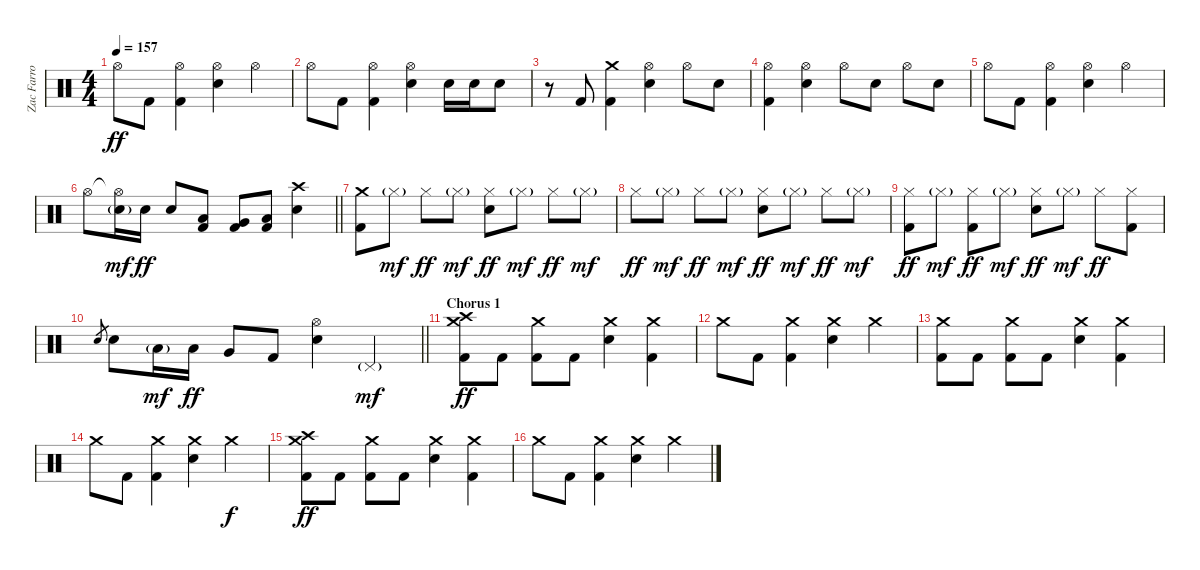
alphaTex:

\track ("Zac Farro | Drum" "Zac Farro ") {instrument percussion}
\staff {score}
\articulation defaults
\ts (4 4)
\tempo 157
\clef neutral
\ks c "Hi-Hat (open)".8{dy ff} "Kick (hit) 2".8
("Hi-Hat (open)" "Kick (hit) 2").4 ("Hi-Hat (open)" "Electric Snare (hit)").4 "Hi-Hat (open)".4 |
"Hi-Hat (open)".8 "Kick (hit) 2".8 ("Hi-Hat (open)" "Kick (hit) 2").4 ("Hi-Hat (open)" "Electric Snare (hit)").4 "Electric Snare (hit)".16 "Electric Snare (hit)".16 "Electric Snare (hit)".8 |
r.8 "Kick (hit) 2".8 ("Crash medium (hit)" "Kick (hit) 2").4 ("Hi-Hat (open)" "Electric Snare (hit)").4 "Hi-Hat (open)".8 "Electric Snare (hit)".8 |
("Hi-Hat (open)" "Kick (hit) 2").4 ("Hi-Hat (open)" "Electric Snare (hit)").4 "Hi-Hat (open)".8 "Electric Snare (hit)".8 "Hi-Hat (open)".8 "Electric Snare (hit)".8 |
"Hi-Hat (open)".8 "Kick (hit) 2".8 ("Hi-Hat (open)" "Kick (hit) 2").4 ("Hi-Hat (open)" "Electric Snare (hit)").4 "Hi-Hat (open)".4 |
\barLineRight lightlight "Hi-Hat (open)".8
("Hi-Hat (open)"{t} "Electric Snare (hit)"{g}).16{dy mf} "Electric Snare (hit)".16{dy ff} "Electric Snare (hit)".8 ("Low Tom (hit)" "Kick (hit) 2").8 ("Very Low Tom (hit)" "Kick (hit) 2").8 ("Low Floor Tom (hit)" "Kick (hit) 2").8 ("Crash high (hit)" "Electric Snare (hit)").4 |
\section ("" "")
("Crash medium (hit)" "Kick (hit) 2").8 "Hi-Hat (closed)"{g}.8{dy mf} "Hi-Hat (closed)".8{dy ff} "Hi-Hat (closed)"{g}.8{dy mf} ("Hi-Hat (closed)" "Electric Snare (hit)").8{dy ff} "Hi-Hat (closed)"{g}.8{dy mf} "Hi-Hat (closed)".8{dy ff} "Hi-Hat (closed)"{g}.8{dy mf} |
"Hi-Hat (closed)".8{dy ff} "Hi-Hat (closed)"{g}.8{dy mf} "Hi-Hat (closed)".8{dy ff} "Hi-Hat (closed)"{g}.8{dy mf} ("Hi-Hat (closed)" "Electric Snare (hit)").8{dy ff} "Hi-Hat (closed)"{g}.8{dy mf} "Hi-Hat (closed)".8{dy ff} "Hi-Hat (closed)"{g}.8{dy mf} |
("Hi-Hat (closed)" "Kick (hit) 2").8{dy ff} "Hi-Hat (closed)"{g}.8{dy mf} ("Hi-Hat (closed)" "Kick (hit) 2").8{dy ff} "Hi-Hat (closed)"{g}.8{dy mf} ("Hi-Hat (closed)" "Electric Snare (hit)").8{dy ff} "Hi-Hat (closed)"{g}.8{dy mf} "Hi-Hat (closed)".8{dy ff} ("Hi-Hat (closed)" "Kick (hit) 2").8 |
\barLineRight lightlight "Electric Snare (hit)".8{gr} "Electric Snare (hit)".8 "Low Tom (hit)"{g}.16{dy mf} "Low Tom (hit)".16{dy ff} "Very Low Tom (hit)".8 "Kick (hit) 2".8
("Hi-Hat (open)" "Electric Snare (hit)").4 "Pedal Hi-Hat (hit)"{g}.4{dy mf} |
\section ("" "Chorus 1")
("Crash high (hit)" "Crash medium (hit)" "Kick (hit) 2").8{dy ff} "Kick (hit) 2".8 ("Crash medium (hit)" "Kick (hit) 2").8 "Kick (hit) 2".8 ("Crash medium (hit)" "Electric Snare (hit)").4 ("Crash medium (hit)" "Kick (hit) 2").4 |
"Crash medium (hit)".8 "Kick (hit) 2".8 ("Crash medium (hit)" "Kick (hit) 2").4 ("Crash medium (hit)" "Electric Snare (hit)").4 "Crash medium (hit)".4 |
("Crash medium (hit)" "Kick (hit) 2").8 "Kick (hit) 2".8 ("Crash medium (hit)" "Kick (hit) 2").8 "Kick (hit) 2".8 ("Crash medium (hit)" "Electric Snare (hit)").4 ("Crash medium (hit)" "Kick (hit) 2").4 |
"Crash medium (hit)".8 "Kick (hit) 2".8 ("Crash medium (hit)" "Kick (hit) 2").4 ("Crash medium (hit)" "Electric Snare (hit)").4 "Crash medium (hit)".4{dy f} |
("Crash high (hit)" "Crash medium (hit)" "Kick (hit) 2").8{dy ff} "Kick (hit) 2".8 ("Crash medium (hit)" "Kick (hit) 2").8 "Kick (hit) 2".8 ("Crash medium (hit)" "Electric Snare (hit)").4 ("Crash medium (hit)" "Kick (hit) 2").4 |
"Crash medium (hit)".8 "Kick (hit) 2".8 ("Crash medium (hit)" "Kick (hit) 2").4 ("Crash medium (hit)" "Electric Snare (hit)").4 "Crash medium (hit)".4
